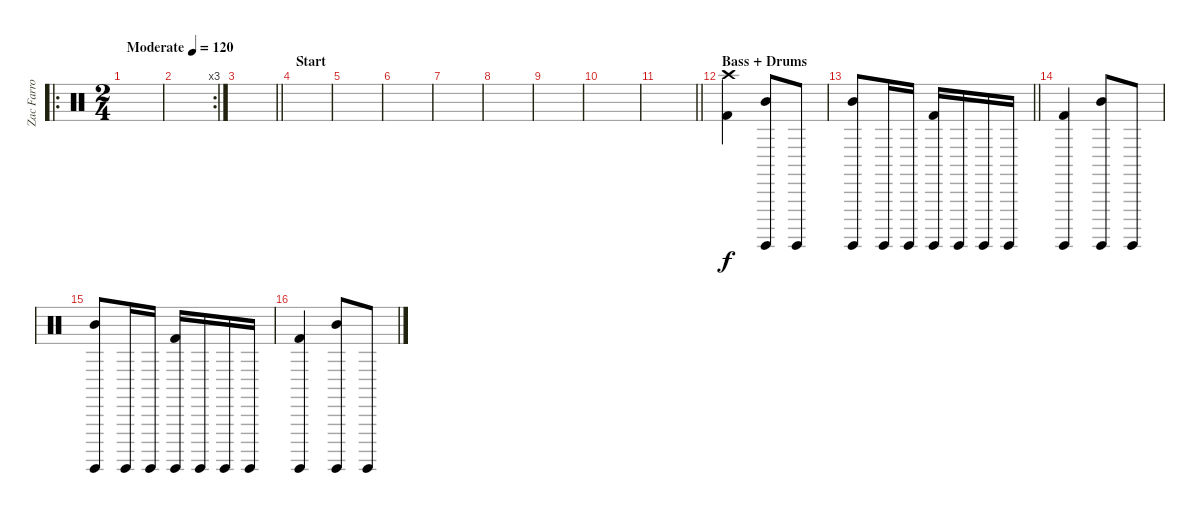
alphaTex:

\track ("Zac Farro" "Zac Farro") {instrument percussion}
\staff {score}
\articulation defaults
\ro
\ts (2 4)
\tempo (120 "Moderate")
\clef neutral
\ks c
|
\rc 3
|
\barLineRight lightlight
|
\section ("" "Start")
|
|
|
|
|
|
|
\barLineRight lightlight
|
\section ("" "Bass + Drums")
("Crash high (hit)" "Kick (hit) 2").4 ("Surdo (hit)" "Mid Tom (hit)").8 "Surdo (hit)".8 |
\barLineRight lightlight
("Surdo (hit)" "Mid Tom (hit)").8 "Surdo (hit)".16 "Surdo (hit)".16 ("Surdo (hit)" "Kick (hit) 2").16 "Surdo (hit)".16 "Surdo (hit)".16 "Surdo (hit)".16 |
("Surdo (hit)" "Kick (hit) 2").4 ("Surdo (hit)" "Mid Tom (hit)").8 "Surdo (hit)".8 |
("Surdo (hit)" "Mid Tom (hit)").8 "Surdo (hit)".16 "Surdo (hit)".16 ("Surdo (hit)" "Kick (hit) 2").16 "Surdo (hit)".16 "Surdo (hit)".16 "Surdo (hit)".16 |
("Surdo (hit)" "Kick (hit) 2").4 ("Surdo (hit)" "Mid Tom (hit)").8 "Surdo (hit)".8
